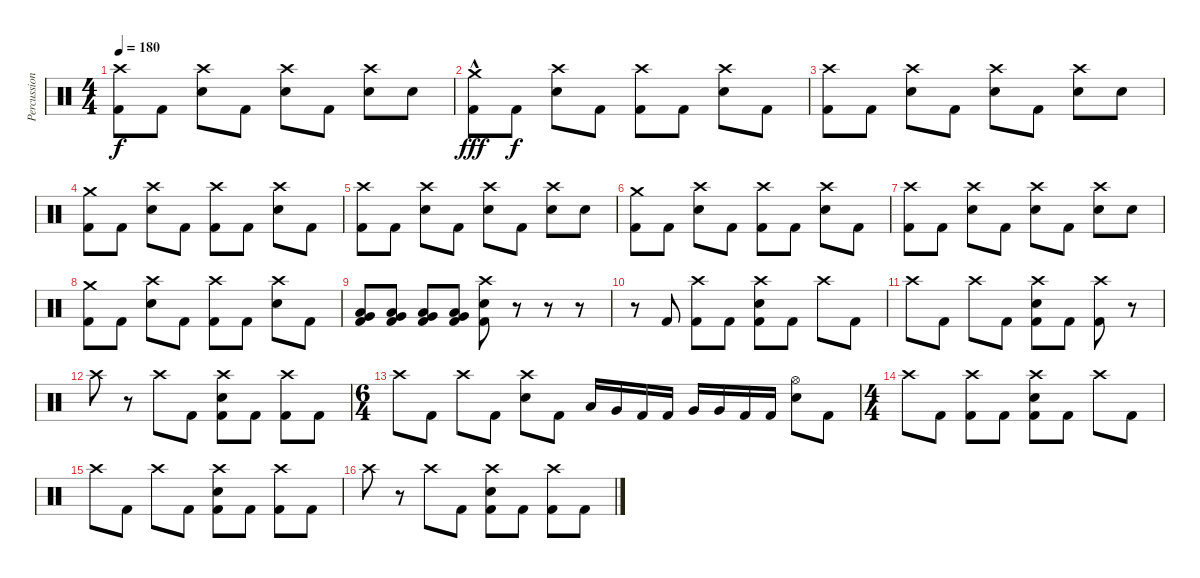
\track ("Percussion" "Percussion") {instrument percussion}
\staff {score}
\articulation defaults
\ts (4 4)
\tempo 180
\clef neutral
\ks c
("Crash high (hit)" "Kick (hit) 2").8{dy f} "Kick (hit) 2".8 ("Crash high (hit)" "Electric Snare (hit)").8 "Kick (hit) 2".8 ("Crash high (hit)" "Electric Snare (hit)").8 "Kick (hit) 2".8 ("Crash high (hit)" "Electric Snare (hit)").8 "Electric Snare (hit)".8 |
("Crash medium (hit)"{hac} "Kick (hit) 2").8{dy fff} "Kick (hit) 2".8{dy f} ("Crash high (hit)" "Electric Snare (hit)").8 "Kick (hit) 2".8 ("Crash high (hit)" "Kick (hit) 2").8 "Kick (hit) 2".8 ("Crash high (hit)" "Electric Snare (hit)").8 "Kick (hit) 2".8 |
("Crash high (hit)" "Kick (hit) 2").8 "Kick (hit) 2".8 ("Crash high (hit)" "Electric Snare (hit)").8 "Kick (hit) 2".8 ("Crash high (hit)" "Electric Snare (hit)").8 "Kick (hit) 2".8 ("Crash high (hit)" "Electric Snare (hit)").8 "Electric Snare (hit)".8 |
("Crash medium (hit)" "Kick (hit) 2").8 "Kick (hit) 2".8 ("Crash high (hit)" "Electric Snare (hit)").8 "Kick (hit) 2".8 ("Crash high (hit)" "Kick (hit) 2").8 "Kick (hit) 2".8 ("Crash high (hit)" "Electric Snare (hit)").8 "Kick (hit) 2".8 |
("Crash high (hit)" "Kick (hit) 2").8 "Kick (hit) 2".8 ("Crash high (hit)" "Electric Snare (hit)").8 "Kick (hit) 2".8 ("Crash high (hit)" "Electric Snare (hit)").8 "Kick (hit) 2".8 ("Crash high (hit)" "Electric Snare (hit)").8 "Electric Snare (hit)".8 |
("Crash medium (hit)" "Kick (hit) 2").8 "Kick (hit) 2".8 ("Crash high (hit)" "Electric Snare (hit)").8 "Kick (hit) 2".8 ("Crash high (hit)" "Kick (hit) 2").8 "Kick (hit) 2".8 ("Crash high (hit)" "Electric Snare (hit)").8 "Kick (hit) 2".8 |
("Crash high (hit)" "Kick (hit) 2").8 "Kick (hit) 2".8 ("Crash high (hit)" "Electric Snare (hit)").8 "Kick (hit) 2".8 ("Crash high (hit)" "Electric Snare (hit)").8 "Kick (hit) 2".8 ("Crash high (hit)" "Electric Snare (hit)").8 "Electric Snare (hit)".8 |
("Crash medium (hit)" "Kick (hit) 2").8 "Kick (hit) 2".8 ("Crash high (hit)" "Electric Snare (hit)").8 "Kick (hit) 2".8 ("Crash high (hit)" "Kick (hit) 2").8 "Kick (hit) 2".8 ("Crash high (hit)" "Electric Snare (hit)").8 "Kick (hit) 2".8 |
("Very Low Tom (hit)" "Low Floor Tom (hit)" "Kick (hit) 2").8 ("Very Low Tom (hit)" "Low Floor Tom (hit)" "Kick (hit) 2").8 ("Very Low Tom (hit)" "Low Floor Tom (hit)" "Kick (hit) 2").8 ("Very Low Tom (hit)" "Low Floor Tom (hit)" "Kick (hit) 2").8 ("Crash high (hit)" "Electric Snare (hit)" "Kick (hit) 2").8 r.8 r.8 r.8 |
r.8 "Kick (hit) 2".8 ("Crash high (hit)" "Kick (hit) 2").8 "Kick (hit) 2".8 ("Crash high (hit)" "Electric Snare (hit)" "Kick (hit) 2").8 "Kick (hit) 2".8 "Crash high (hit)".8 "Kick (hit) 2".8 |
"Crash high (hit)".8 "Kick (hit) 2".8 "Crash high (hit)".8 "Kick (hit) 2".8 ("Crash high (hit)" "Electric Snare (hit)" "Kick (hit) 2").8 "Kick (hit) 2".8 ("Crash high (hit)" "Kick (hit) 2").8 r.8 |
"Crash high (hit)".8 r.8 "Crash high (hit)".8 "Kick (hit) 2".8 ("Crash high (hit)" "Electric Snare (hit)" "Kick (hit) 2").8 "Kick (hit) 2".8 ("Crash high (hit)" "Kick (hit) 2").8 "Kick (hit) 2".8 |
\ts (6 4)
"Crash high (hit)".8 "Kick (hit) 2".8 "Crash high (hit)".8 "Kick (hit) 2".8 ("Crash high (hit)" "Electric Snare (hit)").8 "Kick (hit) 2".8 "Low Tom (hit)".16 "Very Low Tom (hit)".16 "Kick (hit) 2".16 "Kick (hit) 2".16 "Very Low Tom (hit)".16 "Very Low Tom (hit)".16 "Kick (hit) 2".16 "Kick (hit) 2".16 ("Hi-Hat (open)" "Electric Snare (hit)").8 "Kick (hit) 2".8 |
\ts (4 4)
"Crash high (hit)".8 "Kick (hit) 2".8 ("Crash high (hit)" "Kick (hit) 2").8 "Kick (hit) 2".8 ("Crash high (hit)" "Electric Snare (hit)" "Kick (hit) 2").8 "Kick (hit) 2".8 "Crash high (hit)".8 "Kick (hit) 2".8 |
"Crash high (hit)".8 "Kick (hit) 2".8 "Crash high (hit)".8 "Kick (hit) 2".8 ("Crash high (hit)" "Electric Snare (hit)" "Kick (hit) 2").8 "Kick (hit) 2".8 ("Crash high (hit)" "Kick (hit) 2").8 "Kick (hit) 2".8 |
"Crash high (hit)".8 r.8 "Crash high (hit)".8 "Kick (hit) 2".8 ("Crash high (hit)" "Electric Snare (hit)" "Kick (hit) 2").8 "Kick (hit) 2".8 ("Crash high (hit)" "Kick (hit) 2").8 "Kick (hit) 2".8
